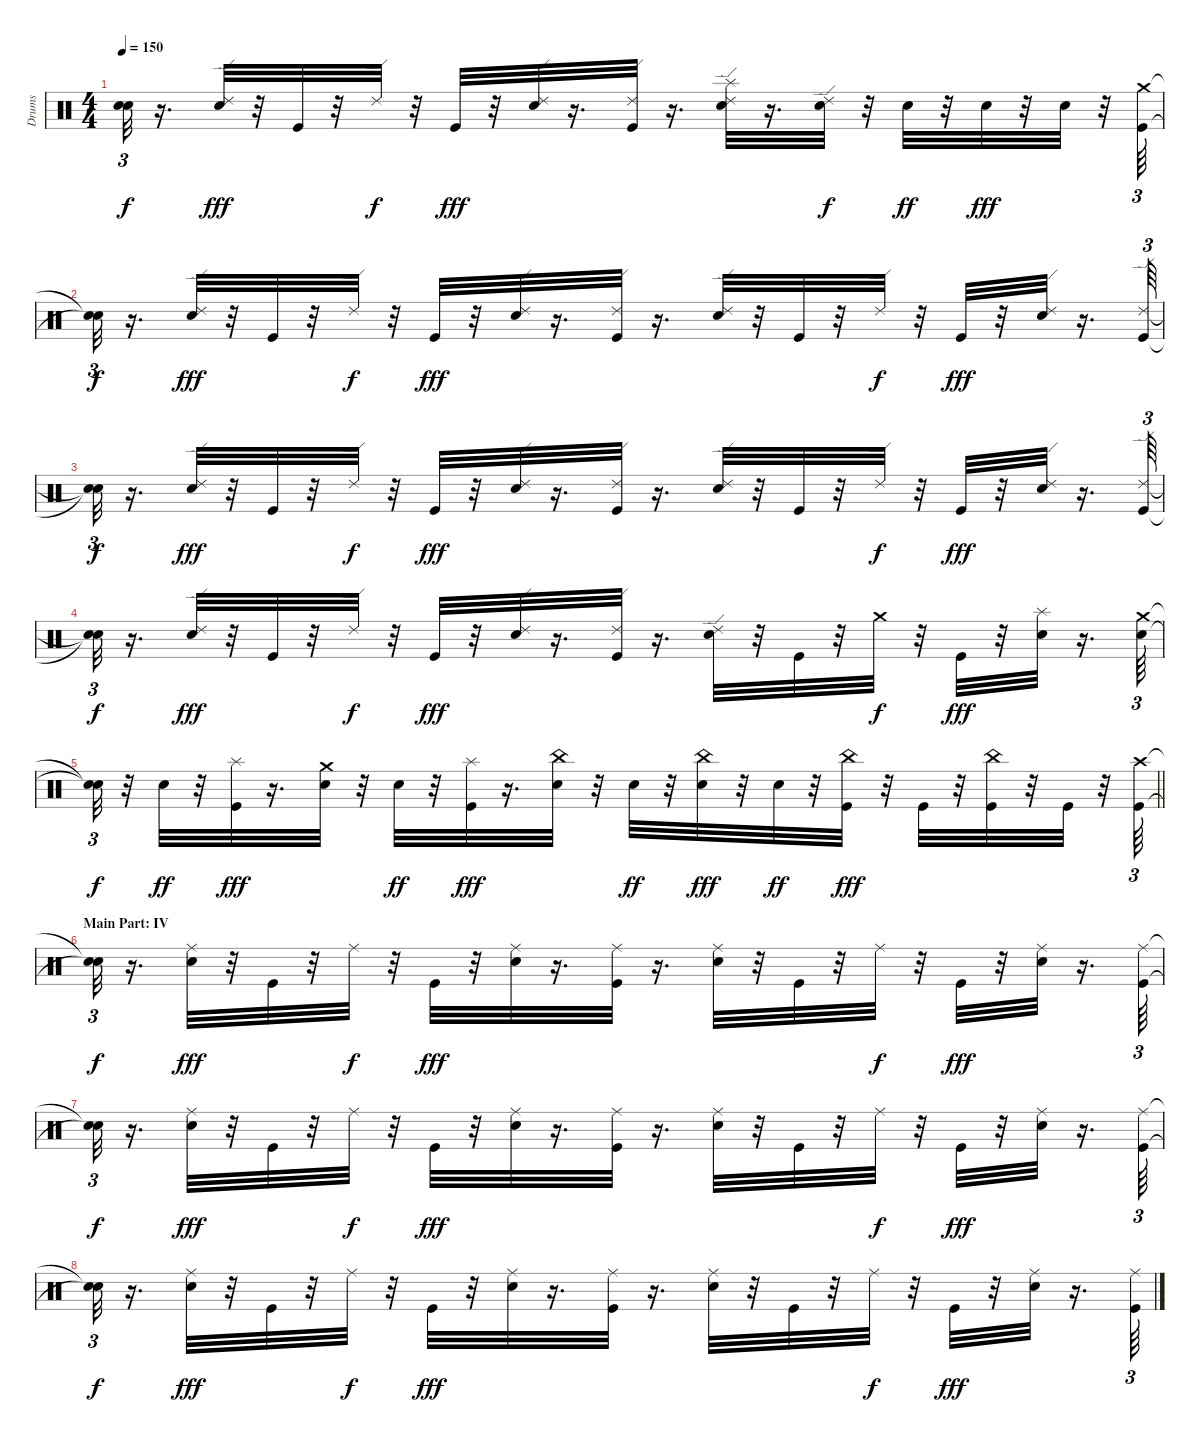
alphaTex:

\track ("Drums" "Drums") {instrument percussion}
\staff {score}
\articulation defaults
\ts (4 4)
\tempo 150
\clef neutral
\ks c
("Snare (hit)"{t} "Snare (hit)"{t}).32{tu (3 2) dy f} r.16{d} ("Ride (edge) 2" "Electric Snare (hit)").32{dy fff} r.32 "Kick (hit)".32 r.32 "Ride (edge) 2".32{dy f} r.32 "Kick (hit)".32{dy fff} r.32 ("Ride (edge) 2" "Electric Snare (hit)").32 r.16{d} ("Ride (edge) 2" "Kick (hit)").32 r.16{d} ("Ride (edge) 2" "Electric Snare (hit)" "Splash (hit)").32 r.16{d} ("Ride (edge) 2" "Electric Snare (hit)").32{dy f} r.32 "Electric Snare (hit)".32{dy ff} r.32 "Electric Snare (hit)".32{dy fff} r.32 "Electric Snare (hit)".32 r.32 ("Crash medium (hit)" "Kick (hit)").64{tu (3 2)} |
("Snare (hit)"{t} "Snare (hit)"{t}).32{tu (3 2) dy f} r.16{d} ("Ride (edge) 2" "Electric Snare (hit)").32{dy fff} r.32 "Kick (hit)".32 r.32 "Ride (edge) 2".32{dy f} r.32 "Kick (hit)".32{dy fff} r.32 ("Ride (edge) 2" "Electric Snare (hit)").32 r.16{d} ("Ride (edge) 2" "Kick (hit)").32 r.16{d} ("Ride (edge) 2" "Electric Snare (hit)").32 r.32 "Kick (hit)".32 r.32 "Ride (edge) 2".32{dy f} r.32 "Kick (hit)".32{dy fff} r.32 ("Ride (edge) 2" "Electric Snare (hit)").32 r.16{d} ("Ride (edge) 2" "Kick (hit)").64{tu (3 2)} |
("Snare (hit)"{t} "Snare (hit)"{t}).32{tu (3 2) dy f} r.16{d} ("Ride (edge) 2" "Electric Snare (hit)").32{dy fff} r.32 "Kick (hit)".32 r.32 "Ride (edge) 2".32{dy f} r.32 "Kick (hit)".32{dy fff} r.32 ("Ride (edge) 2" "Electric Snare (hit)").32 r.16{d} ("Ride (edge) 2" "Kick (hit)").32 r.16{d} ("Ride (edge) 2" "Electric Snare (hit)").32 r.32 "Kick (hit)".32 r.32 "Ride (edge) 2".32{dy f} r.32 "Kick (hit)".32{dy fff} r.32 ("Ride (edge) 2" "Electric Snare (hit)").32 r.16{d} ("Ride (edge) 2" "Kick (hit)").64{tu (3 2)} |
("Snare (hit)"{t} "Snare (hit)"{t}).32{tu (3 2) dy f} r.16{d} ("Ride (edge) 2" "Electric Snare (hit)").32{dy fff} r.32 "Kick (hit)".32 r.32 "Ride (edge) 2".32{dy f} r.32 "Kick (hit)".32{dy fff} r.32 ("Ride (edge) 2" "Electric Snare (hit)").32 r.16{d} ("Ride (edge) 2" "Kick (hit)").32 r.16{d} ("Ride (edge) 2" "Electric Snare (hit)").32 r.32 "Kick (hit)".32 r.32 "Crash medium (hit)".32{dy f} r.32 "Kick (hit)".32{dy fff} r.32 ("Electric Snare (hit)" "Splash (hit)").32 r.16{d} ("Electric Snare (hit)" "Crash medium (hit)").64{tu (3 2)} |
\barLineRight lightlight
("Snare (hit)"{t} "Snare (hit)"{t}).32{tu (3 2) dy f} r.32 "Electric Snare (hit)".32{dy ff} r.32 ("Kick (hit)" "Splash (hit)").32{dy fff} r.16{d} ("Electric Snare (hit)" "Crash medium (hit)").32 r.32 "Electric Snare (hit)".32{dy ff} r.32 ("Kick (hit)" "Splash (hit)").32{dy fff} r.16{d} ("Electric Snare (hit)" "China (hit)").32 r.32 "Electric Snare (hit)".32{dy ff} r.32 ("Electric Snare (hit)" "China (hit)").32{dy fff} r.32 "Electric Snare (hit)".32{dy ff} r.32 ("Kick (hit)" "China (hit)").32{dy fff} r.32 "Kick (hit)".32 r.32 ("Kick (hit)" "China (hit)").32 r.32 "Kick (hit)".32 r.32 ("Crash high (hit)" "Kick (hit)").64{tu (3 2)} |
\section ("" "Main Part: IV")
("Snare (hit)"{t} "Snare (hit)"{t}).32{tu (3 2) dy f} r.16{d} ("Electric Snare (hit)" "Ride (middle)").32{dy fff} r.32 "Kick (hit)".32 r.32 "Ride (middle)".32{dy f} r.32 "Kick (hit)".32{dy fff} r.32 ("Electric Snare (hit)" "Ride (middle)").32 r.16{d} ("Ride (middle)" "Kick (hit)").32 r.16{d} ("Ride (middle)" "Electric Snare (hit)").32 r.32 "Kick (hit)".32 r.32 "Ride (middle)".32{dy f} r.32 "Kick (hit)".32{dy fff} r.32 ("Ride (middle)" "Electric Snare (hit)").32 r.16{d} ("Kick (hit)" "Ride (middle)").64{tu (3 2)} |
("Snare (hit)"{t} "Snare (hit)"{t}).32{tu (3 2) dy f} r.16{d} ("Ride (middle)" "Electric Snare (hit)").32{dy fff} r.32 "Kick (hit)".32 r.32 "Ride (middle)".32{dy f} r.32 "Kick (hit)".32{dy fff} r.32 ("Ride (middle)" "Electric Snare (hit)").32 r.16{d} ("Kick (hit)" "Ride (middle)").32 r.16{d} ("Ride (middle)" "Electric Snare (hit)").32 r.32 "Kick (hit)".32 r.32 "Ride (middle)".32{dy f} r.32 "Kick (hit)".32{dy fff} r.32 ("Ride (middle)" "Electric Snare (hit)").32 r.16{d} ("Kick (hit)" "Ride (middle)").64{tu (3 2)} |
("Snare (hit)"{t} "Snare (hit)"{t}).32{tu (3 2) dy f} r.16{d} ("Ride (middle)" "Electric Snare (hit)").32{dy fff} r.32 "Kick (hit)".32 r.32 "Ride (middle)".32{dy f} r.32 "Kick (hit)".32{dy fff} r.32 ("Ride (middle)" "Electric Snare (hit)").32 r.16{d} ("Kick (hit)" "Ride (middle)").32 r.16{d} ("Ride (middle)" "Electric Snare (hit)").32 r.32 "Kick (hit)".32 r.32 "Ride (middle)".32{dy f} r.32 "Kick (hit)".32{dy fff} r.32 ("Ride (middle)" "Electric Snare (hit)").32 r.16{d} ("Kick (hit)" "Ride (middle)").64{tu (3 2)}
